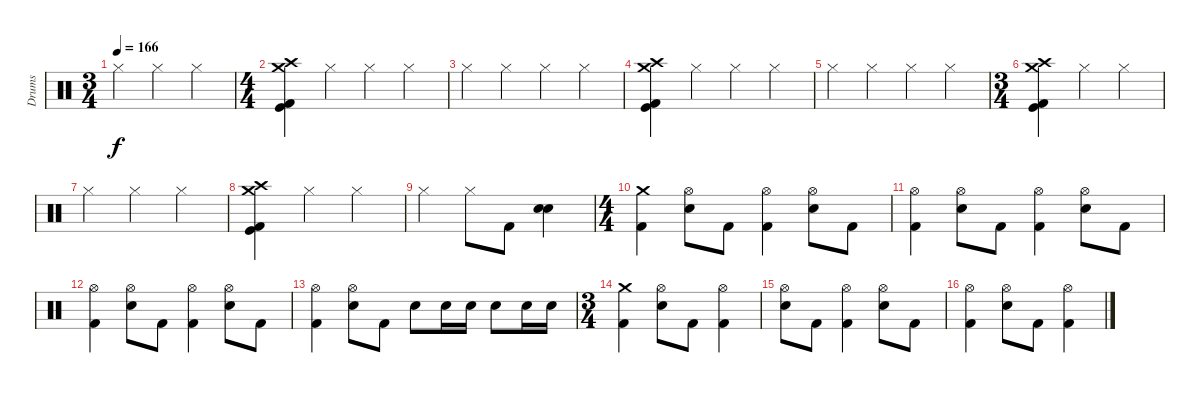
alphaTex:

\track ("Drums" "Drums") {instrument percussion}
\staff {score}
\articulation defaults
\ts (3 4)
\tempo 166
\clef neutral
\ks c "Hi-Hat (closed)".4{dy f} "Hi-Hat (closed)".4 "Hi-Hat (closed)".4
|
\ts (4 4)
("Crash medium (hit)" "Crash high (hit)" "Kick (hit)" "Kick (hit) 2").4 "Hi-Hat (closed)".4 "Hi-Hat (closed)".4 "Hi-Hat (closed)".4 |
"Hi-Hat (closed)".4 "Hi-Hat (closed)".4 "Hi-Hat (closed)".4 "Hi-Hat (closed)".4 |
("Crash medium (hit)" "Crash high (hit)" "Kick (hit)" "Kick (hit) 2").4 "Hi-Hat (closed)".4 "Hi-Hat (closed)".4 "Hi-Hat (closed)".4 |
"Hi-Hat (closed)".4 "Hi-Hat (closed)".4 "Hi-Hat (closed)".4 "Hi-Hat (closed)".4 |
\ts (3 4)
("Crash medium (hit)" "Crash high (hit)" "Kick (hit)" "Kick (hit) 2").4 "Hi-Hat (closed)".4 "Hi-Hat (closed)".4 |
"Hi-Hat (closed)".4 "Hi-Hat (closed)".4 "Hi-Hat (closed)".4 |
("Crash medium (hit)" "Crash high (hit)" "Kick (hit)" "Kick (hit) 2").4 "Hi-Hat (closed)".4 "Hi-Hat (closed)".4 |
"Hi-Hat (closed)".4 "Hi-Hat (closed)".8 "Kick (hit) 2".8 ("Snare (hit) 2" "Snare (hit) 2").4 |
\ts (4 4)
("Crash medium (hit)" "Kick (hit) 2").4 ("Hi-Hat (open)" "Snare (hit) 2").8 "Kick (hit) 2".8 ("Hi-Hat (open)" "Kick (hit) 2").4 ("Hi-Hat (open)" "Snare (hit) 2").8 "Kick (hit) 2".8 |
("Hi-Hat (open)" "Kick (hit) 2").4 ("Hi-Hat (open)" "Snare (hit) 2").8 "Kick (hit) 2".8 ("Hi-Hat (open)" "Kick (hit) 2").4 ("Hi-Hat (open)" "Snare (hit) 2").8 "Kick (hit) 2".8 |
("Hi-Hat (open)" "Kick (hit) 2").4 ("Hi-Hat (open)" "Snare (hit) 2").8 "Kick (hit) 2".8 ("Hi-Hat (open)" "Kick (hit) 2").4 ("Hi-Hat (open)" "Snare (hit) 2").8 "Kick (hit) 2".8 |
("Hi-Hat (open)" "Kick (hit) 2").4 ("Hi-Hat (open)" "Snare (hit) 2").8 "Kick (hit) 2".8 "Snare (hit) 2".8 "Snare (hit) 2".16 "Snare (hit) 2".16 "Snare (hit) 2".8 "Snare (hit) 2".16 "Snare (hit) 2".16 |
\ts (3 4)
("Crash medium (hit)" "Kick (hit) 2").4 ("Hi-Hat (open)" "Snare (hit) 2").8 "Kick (hit) 2".8 ("Hi-Hat (open)" "Kick (hit) 2").4 |
("Hi-Hat (open)" "Snare (hit) 2").8 "Kick (hit) 2".8 ("Hi-Hat (open)" "Kick (hit) 2").4 ("Hi-Hat (open)" "Snare (hit) 2").8 "Kick (hit) 2".8 |
("Hi-Hat (open)" "Kick (hit) 2").4 ("Hi-Hat (open)" "Snare (hit) 2").8 "Kick (hit) 2".8 ("Hi-Hat (open)" "Kick (hit) 2").4
